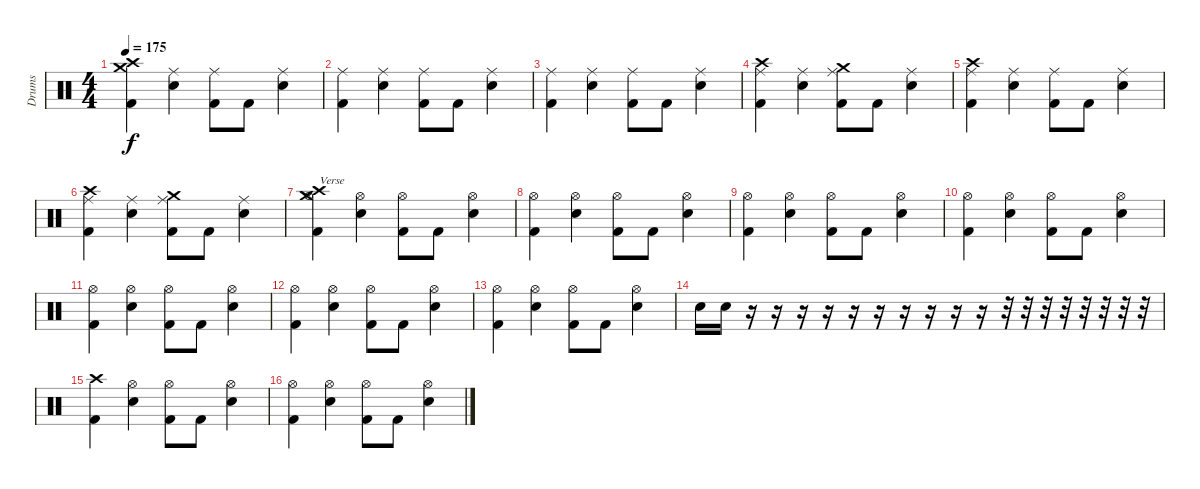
\track ("Drums" "Drums") {instrument percussion}
\staff {score}
\articulation defaults
\ts (4 4)
\tempo 175
\clef neutral
\ks c
("Crash high (hit)" "Crash medium (hit)" "Kick (hit) 2").4{dy f} ("Ride (middle)" "Electric Snare (hit)").4 ("Ride (middle)" "Kick (hit) 2").8 "Kick (hit) 2".8 ("Ride (middle)" "Electric Snare (hit)").4 |
("Ride (middle)" "Kick (hit) 2").4 ("Ride (middle)" "Electric Snare (hit)").4 ("Ride (middle)" "Kick (hit) 2").8 "Kick (hit) 2".8 ("Ride (middle)" "Electric Snare (hit)").4 |
("Ride (middle)" "Kick (hit) 2").4 ("Ride (middle)" "Electric Snare (hit)").4 ("Ride (middle)" "Kick (hit) 2").8 "Kick (hit) 2".8 ("Ride (middle)" "Electric Snare (hit)").4 |
("Crash high (hit)" "Ride (middle)" "Kick (hit) 2").4 ("Ride (middle)" "Electric Snare (hit)").4 ("Crash medium (hit)" "Ride (middle)" "Kick (hit) 2").8 "Kick (hit) 2".8 ("Ride (middle)" "Electric Snare (hit)").4 |
("Crash high (hit)" "Ride (middle)" "Kick (hit) 2").4 ("Ride (middle)" "Electric Snare (hit)").4 ("Ride (middle)" "Kick (hit) 2").8 "Kick (hit) 2".8 ("Ride (middle)" "Electric Snare (hit)").4 |
("Crash high (hit)" "Ride (middle)" "Kick (hit) 2").4 ("Ride (middle)" "Electric Snare (hit)").4 ("Crash medium (hit)" "Ride (middle)" "Kick (hit) 2").8 "Kick (hit) 2".8 ("Ride (middle)" "Electric Snare (hit)").4 |
("Crash medium (hit)" "Hi-Hat (open)" "Crash high (hit)" "Kick (hit) 2").4{txt "Verse"} ("Hi-Hat (open)" "Electric Snare (hit)").4 ("Hi-Hat (open)" "Kick (hit) 2").8 "Kick (hit) 2".8 ("Hi-Hat (open)" "Electric Snare (hit)").4 |
("Hi-Hat (open)" "Kick (hit) 2").4 ("Hi-Hat (open)" "Electric Snare (hit)").4 ("Hi-Hat (open)" "Kick (hit) 2").8 "Kick (hit) 2".8 ("Hi-Hat (open)" "Electric Snare (hit)").4 |
("Hi-Hat (open)" "Kick (hit) 2").4 ("Hi-Hat (open)" "Electric Snare (hit)").4 ("Hi-Hat (open)" "Kick (hit) 2").8 "Kick (hit) 2".8 ("Hi-Hat (open)" "Electric Snare (hit)").4 |
("Hi-Hat (open)" "Kick (hit) 2").4 ("Hi-Hat (open)" "Electric Snare (hit)").4 ("Hi-Hat (open)" "Kick (hit) 2").8 "Kick (hit) 2".8 ("Hi-Hat (open)" "Electric Snare (hit)").4 |
("Hi-Hat (open)" "Kick (hit) 2").4 ("Hi-Hat (open)" "Electric Snare (hit)").4 ("Hi-Hat (open)" "Kick (hit) 2").8 "Kick (hit) 2".8 ("Hi-Hat (open)" "Electric Snare (hit)").4 |
("Hi-Hat (open)" "Kick (hit) 2").4 ("Hi-Hat (open)" "Electric Snare (hit)").4 ("Hi-Hat (open)" "Kick (hit) 2").8 "Kick (hit) 2".8 ("Hi-Hat (open)" "Electric Snare (hit)").4 |
("Hi-Hat (open)" "Kick (hit) 2").4 ("Hi-Hat (open)" "Electric Snare (hit)").4 ("Hi-Hat (open)" "Kick (hit) 2").8 "Kick (hit) 2".8 ("Hi-Hat (open)" "Electric Snare (hit)").4 |
"Electric Snare (hit)".16 "Electric Snare (hit)".16 r.16 r.16 r.16 r.16 r.16 r.16 r.16 r.16 r.16 r.16 r.32 r.32 r.32 r.32 r.32 r.32 r.32 r.32 |
("Crash high (hit)" "Kick (hit) 2").4 ("Hi-Hat (open)" "Electric Snare (hit)").4 ("Hi-Hat (open)" "Kick (hit) 2").8 "Kick (hit) 2".8 ("Hi-Hat (open)" "Electric Snare (hit)").4 |
("Hi-Hat (open)" "Kick (hit) 2").4 ("Hi-Hat (open)" "Electric Snare (hit)").4 ("Hi-Hat (open)" "Kick (hit) 2").8 "Kick (hit) 2".8 ("Hi-Hat (open)" "Electric Snare (hit)").4
